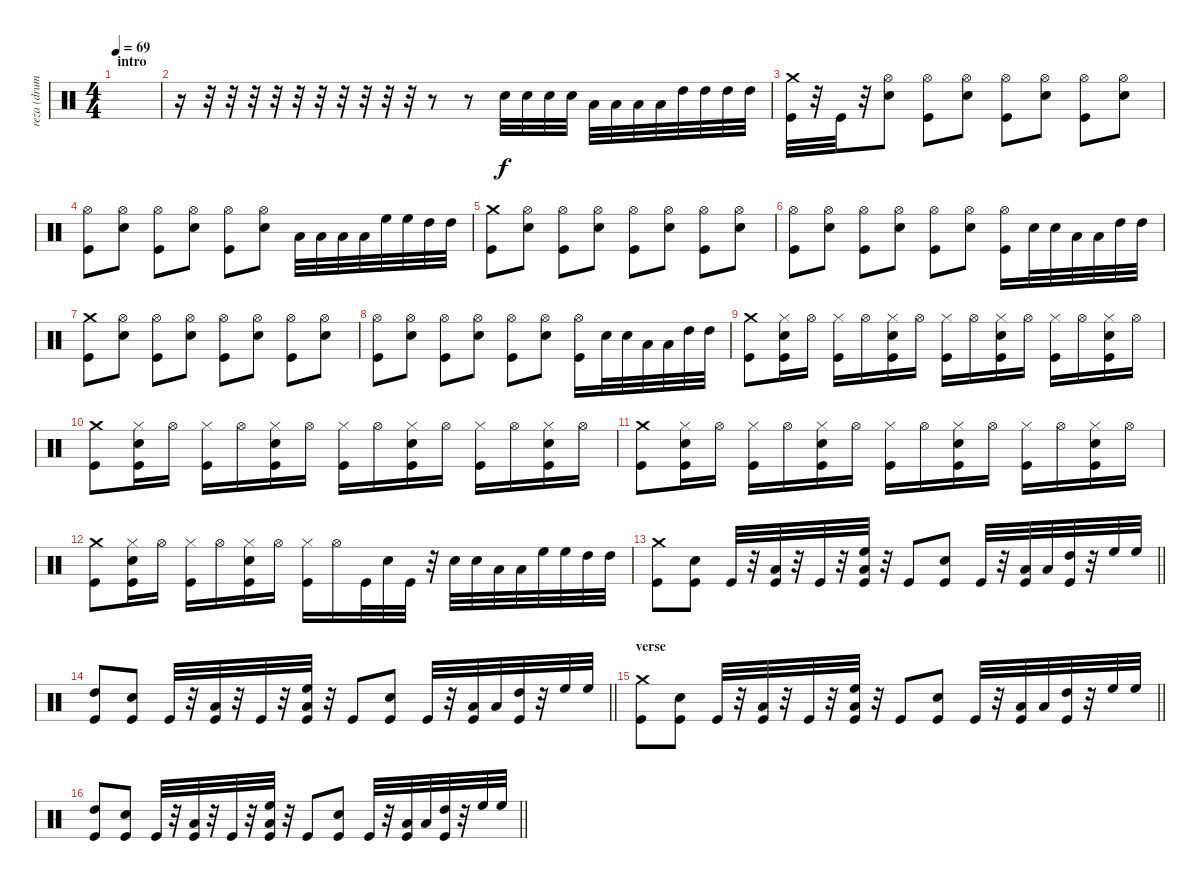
\track ("reza (drum)" "reza (drum") {instrument percussion}
\staff {score}
\articulation defaults
\ts (4 4)
\section ("" "intro")
\tempo 69
\clef neutral
\ks c
|
r.16 r.32 r.32 r.32 r.32 r.32 r.32 r.32 r.32 r.32 r.32 r.8 r.8 "Electric Snare (hit)".32 "Electric Snare (hit)".32 "Electric Snare (hit)".32 "Electric Snare (hit)".32 "Low Tom (hit)".32 "Low Tom (hit)".32 "Low Tom (hit)".32 "Low Tom (hit)".32 "High Tom (hit)".32 "High Tom (hit)".32 "High Tom (hit)".32 "High Tom (hit)".32 |
("Crash medium (hit)" "Kick (hit)").32 r.32 "Kick (hit)".32 r.32 ("Hi-Hat (open)" "Electric Snare (hit)").8 ("Hi-Hat (open)" "Kick (hit)").8 ("Hi-Hat (open)" "Electric Snare (hit)").8 ("Hi-Hat (open)" "Kick (hit)").8 ("Hi-Hat (open)" "Electric Snare (hit)").8 ("Hi-Hat (open)" "Kick (hit)").8 ("Hi-Hat (open)" "Electric Snare (hit)").8 |
("Hi-Hat (open)" "Kick (hit)").8 ("Hi-Hat (open)" "Electric Snare (hit)").8 ("Hi-Hat (open)" "Kick (hit)").8 ("Hi-Hat (open)" "Electric Snare (hit)").8 ("Hi-Hat (open)" "Kick (hit)").8 ("Hi-Hat (open)" "Electric Snare (hit)").8 "Low Tom (hit)".32 "Low Tom (hit)".32 "Low Tom (hit)".32 "Low Tom (hit)".32 "High Floor Tom (hit)".32 "High Floor Tom (hit)".32 "High Tom (hit)".32 "High Tom (hit)".32 |
("Crash medium (hit)" "Kick (hit)").8 ("Hi-Hat (open)" "Electric Snare (hit)").8 ("Hi-Hat (open)" "Kick (hit)").8 ("Hi-Hat (open)" "Electric Snare (hit)").8 ("Hi-Hat (open)" "Kick (hit)").8 ("Hi-Hat (open)" "Electric Snare (hit)").8 ("Hi-Hat (open)" "Kick (hit)").8 ("Hi-Hat (open)" "Electric Snare (hit)").8 |
("Hi-Hat (open)" "Kick (hit)").8 ("Hi-Hat (open)" "Electric Snare (hit)").8 ("Hi-Hat (open)" "Kick (hit)").8 ("Hi-Hat (open)" "Electric Snare (hit)").8 ("Hi-Hat (open)" "Kick (hit)").8 ("Hi-Hat (open)" "Electric Snare (hit)").8 ("Hi-Hat (open)" "Kick (hit)").16 "Electric Snare (hit)".32 "Electric Snare (hit)".32 "Low Tom (hit)".32 "Low Tom (hit)".32 "High Tom (hit)".32 "High Tom (hit)".32 |
("Crash medium (hit)" "Kick (hit)").8 ("Hi-Hat (open)" "Electric Snare (hit)").8 ("Hi-Hat (open)" "Kick (hit)").8 ("Hi-Hat (open)" "Electric Snare (hit)").8 ("Hi-Hat (open)" "Kick (hit)").8 ("Hi-Hat (open)" "Electric Snare (hit)").8 ("Hi-Hat (open)" "Kick (hit)").8 ("Hi-Hat (open)" "Electric Snare (hit)").8 |
("Hi-Hat (open)" "Kick (hit)").8 ("Hi-Hat (open)" "Electric Snare (hit)").8 ("Hi-Hat (open)" "Kick (hit)").8 ("Hi-Hat (open)" "Electric Snare (hit)").8 ("Hi-Hat (open)" "Kick (hit)").8 ("Hi-Hat (open)" "Electric Snare (hit)").8 ("Hi-Hat (open)" "Kick (hit)").16 "Electric Snare (hit)".32 "Electric Snare (hit)".32 "Low Tom (hit)".32 "Low Tom (hit)".32 "High Tom (hit)".32 "High Tom (hit)".32 |
("Crash medium (hit)" "Kick (hit)").8 ("Hi-Hat (closed)" "Electric Snare (hit)" "Kick (hit)").16 "Hi-Hat (open)".16 ("Hi-Hat (closed)" "Kick (hit)").16 "Hi-Hat (open)".16 ("Hi-Hat (closed)" "Electric Snare (hit)" "Kick (hit)").16 "Hi-Hat (open)".16 ("Hi-Hat (closed)" "Kick (hit)").16 "Hi-Hat (open)".16 ("Hi-Hat (closed)" "Electric Snare (hit)" "Kick (hit)").16 "Hi-Hat (open)".16 ("Hi-Hat (closed)" "Kick (hit)").16 "Hi-Hat (open)".16 ("Hi-Hat (closed)" "Electric Snare (hit)" "Kick (hit)").16 "Hi-Hat (open)".16 |
("Crash medium (hit)" "Kick (hit)").8 ("Hi-Hat (closed)" "Electric Snare (hit)" "Kick (hit)").16 "Hi-Hat (open)".16 ("Hi-Hat (closed)" "Kick (hit)").16 "Hi-Hat (open)".16 ("Hi-Hat (closed)" "Electric Snare (hit)" "Kick (hit)").16 "Hi-Hat (open)".16 ("Hi-Hat (closed)" "Kick (hit)").16 "Hi-Hat (open)".16 ("Hi-Hat (closed)" "Electric Snare (hit)" "Kick (hit)").16 "Hi-Hat (open)".16 ("Hi-Hat (closed)" "Kick (hit)").16 "Hi-Hat (open)".16 ("Hi-Hat (closed)" "Electric Snare (hit)" "Kick (hit)").16 "Hi-Hat (open)".16 |
("Crash medium (hit)" "Kick (hit)").8 ("Hi-Hat (closed)" "Electric Snare (hit)" "Kick (hit)").16 "Hi-Hat (open)".16 ("Hi-Hat (closed)" "Kick (hit)").16 "Hi-Hat (open)".16 ("Hi-Hat (closed)" "Electric Snare (hit)" "Kick (hit)").16 "Hi-Hat (open)".16 ("Hi-Hat (closed)" "Kick (hit)").16 "Hi-Hat (open)".16 ("Hi-Hat (closed)" "Electric Snare (hit)" "Kick (hit)").16 "Hi-Hat (open)".16 ("Hi-Hat (closed)" "Kick (hit)").16 "Hi-Hat (open)".16 ("Hi-Hat (closed)" "Electric Snare (hit)" "Kick (hit)").16 "Hi-Hat (open)".16 |
("Crash medium (hit)" "Kick (hit)").8 ("Hi-Hat (closed)" "Electric Snare (hit)" "Kick (hit)").16 "Hi-Hat (open)".16 ("Hi-Hat (closed)" "Kick (hit)").16 "Hi-Hat (open)".16 ("Hi-Hat (closed)" "Electric Snare (hit)" "Kick (hit)").16 "Hi-Hat (open)".16 ("Hi-Hat (closed)" "Kick (hit)").16 "Hi-Hat (open)".16 "Kick (hit)".32 "Electric Snare (hit)".32 "Kick (hit)".32 r.32 "Electric Snare (hit)".32 "Electric Snare (hit)".32 "Low Tom (hit)".32 "Low Tom (hit)".32 "High Floor Tom (hit)".32 "High Floor Tom (hit)".32 "High Tom (hit)".32 "High Tom (hit)".32 |
\barLineRight lightlight
("Crash medium (hit)" "Kick (hit)").8 ("Electric Snare (hit)" "Kick (hit)").8 "Kick (hit)".32 r.32 ("Low Tom (hit)" "Kick (hit)").32 r.32 "Kick (hit)".32 r.32 ("High Floor Tom (hit)" "Low Tom (hit)" "Kick (hit)").32 r.32 "Kick (hit)".8 ("Electric Snare (hit)" "Kick (hit)").8 "Kick (hit)".32 r.32 ("Low Tom (hit)" "Kick (hit)").32 "Low Tom (hit)".32 ("High Tom (hit)" "Kick (hit)").32 r.32 "High Floor Tom (hit)".32 "High Floor Tom (hit)".32 |
\barLineRight lightlight
("High Tom (hit)" "Kick (hit)").8 ("Electric Snare (hit)" "Kick (hit)").8 "Kick (hit)".32 r.32 ("Low Tom (hit)" "Kick (hit)").32 r.32 "Kick (hit)".32 r.32 ("High Floor Tom (hit)" "Low Tom (hit)" "Kick (hit)").32 r.32 "Kick (hit)".8 ("Electric Snare (hit)" "Kick (hit)").8 "Kick (hit)".32 r.32 ("Low Tom (hit)" "Kick (hit)").32 "Low Tom (hit)".32 ("High Tom (hit)" "Kick (hit)").32 r.32 "High Floor Tom (hit)".32 "High Floor Tom (hit)".32 |
\section ("" "verse")
\barLineRight lightlight
("Crash medium (hit)" "Kick (hit)").8 ("Electric Snare (hit)" "Kick (hit)").8 "Kick (hit)".32 r.32 ("Low Tom (hit)" "Kick (hit)").32 r.32 "Kick (hit)".32 r.32 ("High Floor Tom (hit)" "Low Tom (hit)" "Kick (hit)").32 r.32 "Kick (hit)".8 ("Electric Snare (hit)" "Kick (hit)").8 "Kick (hit)".32 r.32 ("Low Tom (hit)" "Kick (hit)").32 "Low Tom (hit)".32 ("High Tom (hit)" "Kick (hit)").32 r.32 "High Floor Tom (hit)".32 "High Floor Tom (hit)".32 |
\barLineRight lightlight
("High Tom (hit)" "Kick (hit)").8 ("Electric Snare (hit)" "Kick (hit)").8 "Kick (hit)".32 r.32 ("Low Tom (hit)" "Kick (hit)").32 r.32 "Kick (hit)".32 r.32 ("High Floor Tom (hit)" "Low Tom (hit)" "Kick (hit)").32 r.32 "Kick (hit)".8 ("Electric Snare (hit)" "Kick (hit)").8 "Kick (hit)".32 r.32 ("Low Tom (hit)" "Kick (hit)").32 "Low Tom (hit)".32 ("High Tom (hit)" "Kick (hit)").32 r.32 "High Floor Tom (hit)".32 "High Floor Tom (hit)".32
